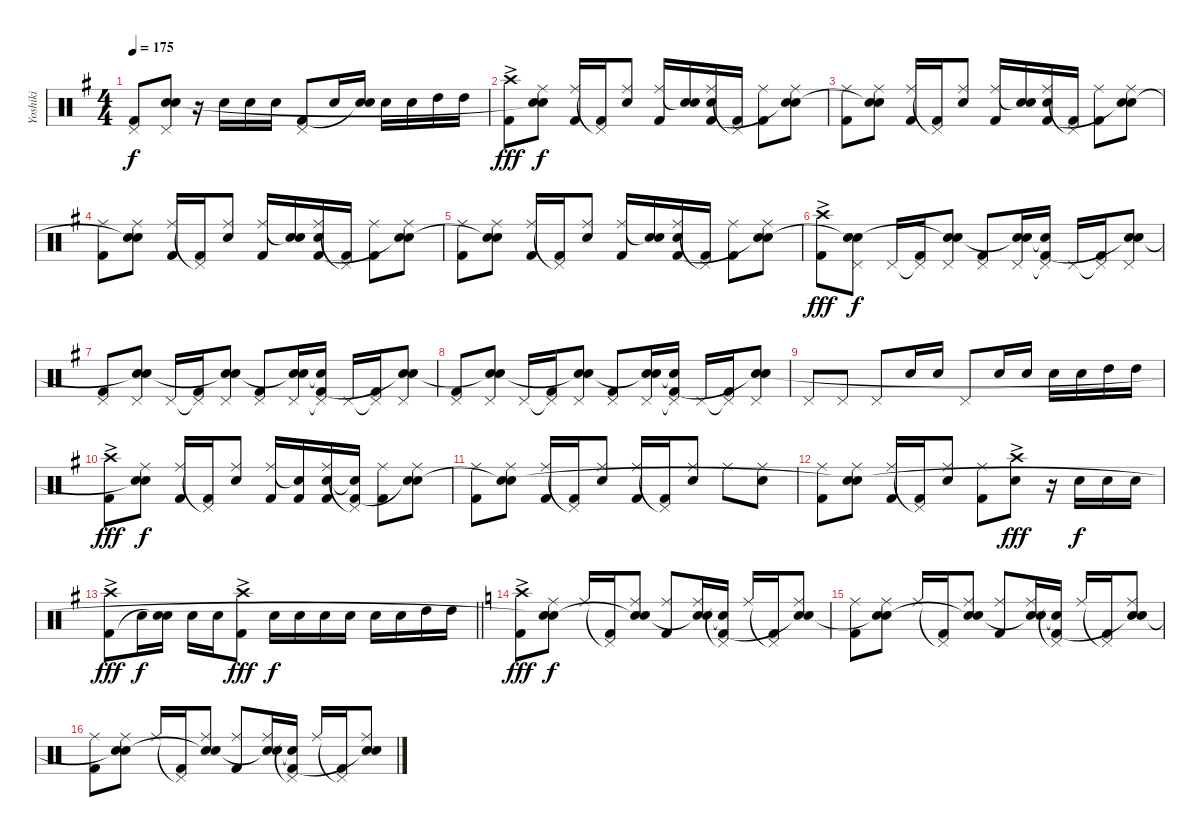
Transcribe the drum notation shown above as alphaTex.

\track ("Yoshiki" "Yoshiki") {instrument percussion}
\staff {score}
\articulation defaults
\ts (4 4)
\tempo 175
\clef neutral
\ks g
("Pedal Hi-Hat (hit)" "Kick (hit) 2").8{dy f} ("Pedal Hi-Hat (hit)" "Snare (hit) 2" "Snare (hit)"{t}).8 r.16 "Snare (hit) 2".16 "Snare (hit) 2".16 "Snare (hit) 2".16 ("Pedal Hi-Hat (hit)" "Kick (hit) 2").8 "Snare (hit) 2".16 ("Snare (hit) 2" "Snare (hit)"{t}).16 "Snare (hit) 2".16 "Snare (hit) 2".16 "High Tom (hit)".16 "High Tom (hit)".16 |
("Crash high (hit)"{ac} "Kick (hit) 2"{ac}).8{dy fff} ("Ride (middle)" "Snare (hit) 2" "Snare (hit)"{t}).8{dy f} ("Ride (middle)" "Kick (hit) 2").16 ("Pedal Hi-Hat (hit)"{t} "Kick (hit) 2").16 ("Ride (middle)" "Snare (hit) 2").8 ("Ride (middle)" "Kick (hit) 2").16 ("Snare (hit)"{t} "Snare (hit)").16 ("Ride (middle)" "Snare (hit) 2" "Kick (hit) 2").16 ("Pedal Hi-Hat (hit)"{t} "Kick (hit) 2").16 ("Ride (middle)" "Kick (hit) 2").8 ("Ride (middle)" "Snare (hit) 2" "Snare (hit)"{t}).8 |
("Ride (middle)" "Kick (hit) 2").8 ("Ride (middle)" "Snare (hit) 2" "Snare (hit)"{t}).8 ("Ride (middle)" "Kick (hit) 2").16 ("Pedal Hi-Hat (hit)"{t} "Kick (hit) 2").16 ("Ride (middle)" "Snare (hit) 2").8 ("Ride (middle)" "Kick (hit) 2").16 ("Snare (hit)"{t} "Snare (hit)").16 ("Ride (middle)" "Snare (hit) 2" "Kick (hit) 2").16 ("Pedal Hi-Hat (hit)"{t} "Kick (hit) 2").16 ("Ride (middle)" "Kick (hit) 2").8 ("Ride (middle)" "Snare (hit) 2" "Snare (hit)"{t}).8 |
("Ride (middle)" "Kick (hit) 2").8 ("Ride (middle)" "Snare (hit) 2" "Snare (hit)"{t}).8 ("Ride (middle)" "Kick (hit) 2").16 ("Pedal Hi-Hat (hit)"{t} "Kick (hit) 2").16 ("Ride (middle)" "Snare (hit) 2").8 ("Ride (middle)" "Kick (hit) 2").16 ("Snare (hit)"{t} "Snare (hit)").16 ("Ride (middle)" "Snare (hit) 2" "Kick (hit) 2").16 ("Pedal Hi-Hat (hit)"{t} "Kick (hit) 2").16 ("Ride (middle)" "Kick (hit) 2").8 ("Ride (middle)" "Snare (hit) 2" "Snare (hit)"{t}).8 |
("Ride (middle)" "Kick (hit) 2").8 ("Ride (middle)" "Snare (hit) 2" "Snare (hit)"{t}).8 ("Ride (middle)" "Kick (hit) 2").16 ("Pedal Hi-Hat (hit)"{t} "Kick (hit) 2").16 ("Ride (middle)" "Snare (hit) 2").8 ("Ride (middle)" "Kick (hit) 2").16 ("Snare (hit)"{t} "Snare (hit)").16 ("Ride (middle)" "Snare (hit) 2" "Kick (hit) 2").16 ("Pedal Hi-Hat (hit)"{t} "Kick (hit) 2").16 ("Ride (middle)" "Kick (hit) 2").8 ("Ride (middle)" "Snare (hit) 2" "Snare (hit)"{t}).8 |
("Crash high (hit)"{ac} "Kick (hit) 2"{ac}).8{dy fff} ("Pedal Hi-Hat (hit)" "Snare (hit) 2" "Snare (hit)"{t}).8{dy f} "Pedal Hi-Hat (hit)".16 ("Pedal Hi-Hat (hit)"{t} "Kick (hit) 2").16 ("Pedal Hi-Hat (hit)" "Snare (hit) 2" "Snare (hit)"{t}).8 ("Pedal Hi-Hat (hit)" "Kick (hit) 2").8 ("Pedal Hi-Hat (hit)" "Snare (hit) 2" "Snare (hit)"{t}).16 ("Pedal Hi-Hat (hit)"{t} "Snare (hit) 2"{t} "Kick (hit) 2").16 "Pedal Hi-Hat (hit)".16 ("Pedal Hi-Hat (hit)"{t} "Kick (hit) 2").16 ("Pedal Hi-Hat (hit)" "Snare (hit) 2" "Snare (hit)"{t}).8 |
("Pedal Hi-Hat (hit)" "Kick (hit) 2").8 ("Pedal Hi-Hat (hit)" "Snare (hit) 2" "Snare (hit)"{t}).8 "Pedal Hi-Hat (hit)".16 ("Pedal Hi-Hat (hit)"{t} "Kick (hit) 2").16 ("Pedal Hi-Hat (hit)" "Snare (hit) 2" "Snare (hit)"{t}).8 ("Pedal Hi-Hat (hit)" "Kick (hit) 2").8 ("Pedal Hi-Hat (hit)" "Snare (hit) 2" "Snare (hit)"{t}).16 ("Pedal Hi-Hat (hit)"{t} "Snare (hit)"{t} "Kick (hit) 2").16 "Pedal Hi-Hat (hit)".16 ("Pedal Hi-Hat (hit)"{t} "Kick (hit) 2").16 ("Pedal Hi-Hat (hit)" "Snare (hit) 2" "Snare (hit)"{t}).8 |
("Pedal Hi-Hat (hit)" "Kick (hit) 2").8 ("Pedal Hi-Hat (hit)" "Snare (hit) 2" "Snare (hit)"{t}).8 "Pedal Hi-Hat (hit)".16 ("Pedal Hi-Hat (hit)"{t} "Kick (hit) 2").16 ("Pedal Hi-Hat (hit)" "Snare (hit) 2" "Snare (hit)"{t}).8 ("Pedal Hi-Hat (hit)" "Kick (hit) 2").8 ("Pedal Hi-Hat (hit)" "Snare (hit) 2" "Snare (hit)"{t}).16 ("Pedal Hi-Hat (hit)"{t} "Snare (hit)"{t} "Kick (hit) 2").16 "Pedal Hi-Hat (hit)".16 ("Pedal Hi-Hat (hit)"{t} "Kick (hit) 2").16 ("Pedal Hi-Hat (hit)" "Snare (hit) 2" "Snare (hit)"{t}).8 |
"Pedal Hi-Hat (hit)".8 "Pedal Hi-Hat (hit)".8 "Pedal Hi-Hat (hit)".8 "Snare (hit) 2".16 "Snare (hit) 2".16 "Pedal Hi-Hat (hit)".8 "Snare (hit) 2".16 "Snare (hit) 2".16 "Snare (hit) 2".16 "Snare (hit) 2".16 "High Tom (hit)".16 "High Tom (hit)".16 |
("Crash high (hit)"{ac} "Kick (hit) 2"{ac}).8{dy fff} ("Ride (middle)" "Snare (hit) 2" "Snare (hit)"{t}).8{dy f} ("Ride (middle)" "Kick (hit) 2").16 ("Pedal Hi-Hat (hit)"{t} "Kick (hit) 2").16 ("Ride (middle)" "Snare (hit) 2").8 ("Ride (middle)" "Kick (hit) 2").16 ("Snare (hit)"{t} "Kick (hit) 2").16 ("Ride (middle)" "Snare (hit) 2" "Kick (hit) 2").16 ("Pedal Hi-Hat (hit)"{t} "Snare (hit) 2"{t} "Kick (hit) 2").16 ("Ride (middle)" "Kick (hit) 2").8 ("Ride (middle)" "Snare (hit) 2" "Snare (hit)"{t}).8 |
("Ride (middle)" "Kick (hit) 2").8 ("Ride (middle)" "Snare (hit) 2" "Snare (hit)"{t}).8 ("Ride (middle)" "Kick (hit) 2").16 ("Pedal Hi-Hat (hit)"{t} "Kick (hit) 2").16 ("Ride (middle)" "Snare (hit) 2").8 ("Ride (middle)" "Kick (hit) 2").16 ("Pedal Hi-Hat (hit)"{t} "Kick (hit) 2").16 ("Ride (middle)" "Snare (hit) 2").8 "Ride (middle)".8 ("Ride (middle)" "Snare (hit) 2").8 |
("Ride (middle)" "Kick (hit) 2").8 ("Ride (middle)" "Snare (hit) 2" "Snare (hit)"{t}).8 ("Ride (middle)" "Kick (hit) 2").16 ("Pedal Hi-Hat (hit)"{t} "Kick (hit) 2").16 ("Ride (middle)" "Snare (hit) 2").8 ("Ride (middle)" "Kick (hit) 2").8 ("Crash high (hit)"{ac} "Snare (hit) 2").8{dy fff} r.16 "Snare (hit) 2".16{dy f} "Snare (hit) 2".16 "Snare (hit) 2".16 |
\barLineRight lightlight
("Crash high (hit)"{ac} "Kick (hit) 2"{ac}).8{dy fff} "Snare (hit) 2".16{dy f} ("Snare (hit) 2" "Snare (hit)"{t}).16 "Snare (hit) 2".16 "Snare (hit) 2".16 ("Crash high (hit)"{ac} "Kick (hit) 2"{ac}).8{dy fff} "Snare (hit) 2".16{dy f} "Snare (hit) 2".16 "Snare (hit) 2".16 "Snare (hit) 2".16 "Snare (hit) 2".16 "Snare (hit) 2".16 "High Tom (hit)".16 "High Tom (hit)".16 |
\ks c
("Crash high (hit)"{ac} "Kick (hit) 2"{ac}).8{dy fff} ("Ride (middle)" "Snare (hit) 2" "Snare (hit)"{t}).8{dy f} "Ride (middle)".16 ("Pedal Hi-Hat (hit)"{t} "Kick (hit) 2").16 ("Ride (middle)" "Snare (hit) 2" "Snare (hit)"{t}).8 ("Ride (middle)" "Kick (hit) 2").8 ("Ride (middle)" "Snare (hit) 2" "Snare (hit)"{t}).16 ("Pedal Hi-Hat (hit)"{t} "Snare (hit) 2"{t} "Kick (hit) 2").16 "Ride (middle)".16 ("Pedal Hi-Hat (hit)"{t} "Kick (hit) 2").16 ("Ride (middle)" "Snare (hit) 2" "Snare (hit)"{t}).8 |
("Ride (middle)" "Kick (hit) 2").8 ("Ride (middle)" "Snare (hit) 2" "Snare (hit)"{t}).8 "Ride (middle)".16 ("Pedal Hi-Hat (hit)"{t} "Kick (hit) 2").16 ("Ride (middle)" "Snare (hit) 2" "Snare (hit)"{t}).8 ("Ride (middle)" "Kick (hit) 2").8 ("Ride (middle)" "Snare (hit) 2" "Snare (hit)"{t}).16 ("Pedal Hi-Hat (hit)"{t} "Snare (hit) 2"{t} "Kick (hit) 2").16 "Ride (middle)".16 ("Pedal Hi-Hat (hit)"{t} "Kick (hit) 2").16 ("Ride (middle)" "Snare (hit) 2" "Snare (hit)"{t}).8 |
("Ride (middle)" "Kick (hit) 2").8 ("Ride (middle)" "Snare (hit) 2" "Snare (hit)"{t}).8 "Ride (middle)".16 ("Pedal Hi-Hat (hit)"{t} "Kick (hit) 2").16 ("Ride (middle)" "Snare (hit) 2" "Snare (hit)"{t}).8 ("Ride (middle)" "Kick (hit) 2").8 ("Ride (middle)" "Snare (hit) 2" "Snare (hit)"{t}).16 ("Pedal Hi-Hat (hit)"{t} "Snare (hit) 2"{t} "Kick (hit) 2").16 "Ride (middle)".16 ("Pedal Hi-Hat (hit)"{t} "Kick (hit) 2").16 ("Ride (middle)" "Snare (hit) 2" "Snare (hit)"{t}).8
